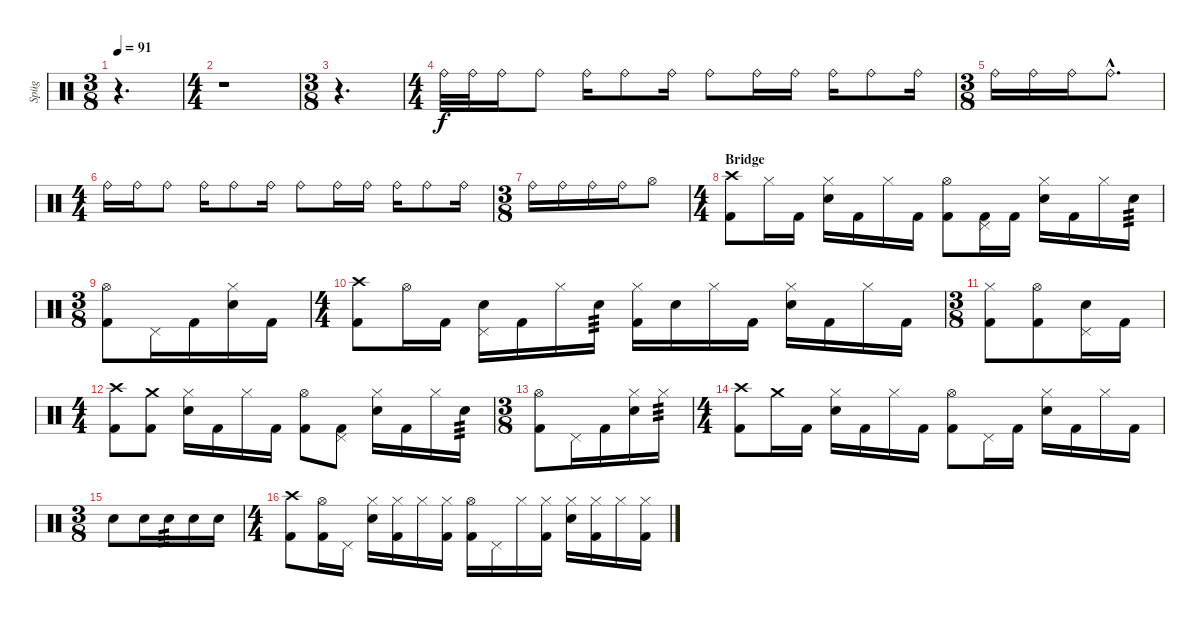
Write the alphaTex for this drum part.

\track ("Spüg" "Spüg") {instrument percussion}
\staff {score}
\articulation defaults
\ts (3 8)
\tempo 91
\clef neutral
\ks c
r.4{d dy f} |
\ts (4 4)
r.1 |
\ts (3 8)
r.4{d} |
\ts (4 4)
"Ride (bell)".32 "Ride (bell)".32 "Ride (bell)".16 "Ride (bell)".8 "Ride (bell)".16 "Ride (bell)".8 "Ride (bell)".16 "Ride (bell)".8 "Ride (bell)".16 "Ride (bell)".16 "Ride (bell)".16 "Ride (bell)".8 "Ride (bell)".16 |
\ts (3 8)
"Ride (bell)".16 "Ride (bell)".16 "Ride (bell)".16 "Ride (bell)"{hac}.8{d} |
\ts (4 4)
"Ride (bell)".16 "Ride (bell)".16 "Ride (bell)".8 "Ride (bell)".16 "Ride (bell)".8 "Ride (bell)".16 "Ride (bell)".8 "Ride (bell)".16 "Ride (bell)".16 "Ride (bell)".16 "Ride (bell)".8 "Ride (bell)".16 |
\ts (3 8)
"Ride (bell)".16 "Ride (bell)".16 "Ride (bell)".16 "Ride (bell)".16 "Hi-Hat (open)".8 |
\ts (4 4)
\section ("" "Bridge")
("Crash high (hit)" "Kick (hit) 2").8 "Hi-Hat (closed)".16 "Kick (hit) 2".16 ("Hi-Hat (closed)" "Electric Snare (hit)").16 "Kick (hit) 2".16 "Hi-Hat (closed)".16 "Kick (hit) 2".16 ("Hi-Hat (open)" "Kick (hit) 2").8 ("Pedal Hi-Hat (hit)" "Kick (hit) 2").16 "Kick (hit) 2".16 ("Hi-Hat (closed)" "Electric Snare (hit)").16 "Kick (hit) 2".16 "Hi-Hat (closed)".16 "Electric Snare (hit)".16{tp 3} |
\ts (3 8)
("Hi-Hat (open)" "Kick (hit) 2").8 "Pedal Hi-Hat (hit)".16 "Kick (hit) 2".16 ("Hi-Hat (closed)" "Electric Snare (hit)").16 "Kick (hit) 2".16 |
\ts (4 4)
("Crash high (hit)" "Kick (hit) 2").8 "Hi-Hat (open)".16 "Kick (hit) 2".16 ("Pedal Hi-Hat (hit)" "Electric Snare (hit)").16 "Kick (hit) 2".16 "Hi-Hat (closed)".16 "Electric Snare (hit)".16{tp 3} ("Hi-Hat (closed)" "Kick (hit) 2").16 "Electric Snare (hit)".16 "Hi-Hat (closed)".16 "Kick (hit) 2".16 ("Hi-Hat (closed)" "Electric Snare (hit)").16 "Kick (hit) 2".16 "Hi-Hat (closed)".16 "Kick (hit) 2".16 |
\ts (3 8)
("Hi-Hat (closed)" "Kick (hit) 2").8 ("Hi-Hat (open)" "Kick (hit) 2").8 ("Pedal Hi-Hat (hit)" "Electric Snare (hit)").16 "Kick (hit) 2".16 |
\ts (4 4)
("Crash high (hit)" "Kick (hit) 2").8 ("Crash medium (hit)" "Kick (hit) 2").8 ("Hi-Hat (closed)" "Electric Snare (hit)").16 "Kick (hit) 2".16 "Hi-Hat (closed)".16 "Kick (hit) 2".16 ("Hi-Hat (open)" "Kick (hit) 2").8 ("Pedal Hi-Hat (hit)" "Kick (hit) 2").8 ("Hi-Hat (closed)" "Electric Snare (hit)").16 "Kick (hit) 2".16 "Hi-Hat (closed)".16 "Electric Snare (hit)".16{tp 3} |
\ts (3 8)
("Hi-Hat (open)" "Kick (hit) 2").8 "Pedal Hi-Hat (hit)".16 "Kick (hit) 2".16 ("Hi-Hat (closed)" "Electric Snare (hit)").16 "Hi-Hat (closed)".16{tp 3} |
\ts (4 4)
("Crash high (hit)" "Kick (hit) 2").8 "Crash medium (hit)".16 "Kick (hit) 2".16 ("Hi-Hat (closed)" "Electric Snare (hit)").16 "Kick (hit) 2".16 "Hi-Hat (closed)".16 "Kick (hit) 2".16 ("Hi-Hat (open)" "Kick (hit) 2").8 "Pedal Hi-Hat (hit)".16 "Kick (hit) 2".16 ("Hi-Hat (closed)" "Electric Snare (hit)").16 "Kick (hit) 2".16 "Hi-Hat (closed)".16 "Kick (hit) 2".16 |
\ts (3 8)
"Electric Snare (hit)".8 "Electric Snare (hit)".16 "Electric Snare (hit)".16{tp 3} "Electric Snare (hit)".16 "Electric Snare (hit)".16 |
\ts (4 4)
("Crash high (hit)" "Kick (hit) 2").8 ("Hi-Hat (open)" "Kick (hit) 2").16 "Pedal Hi-Hat (hit)".16 ("Hi-Hat (closed)" "Electric Snare (hit)").16 ("Hi-Hat (closed)" "Kick (hit) 2").16 "Hi-Hat (closed)".16 ("Hi-Hat (closed)" "Kick (hit) 2").16 ("Hi-Hat (open)" "Kick (hit) 2").16 "Pedal Hi-Hat (hit)".16 "Hi-Hat (closed)".16 ("Hi-Hat (closed)" "Kick (hit) 2").16 ("Hi-Hat (closed)" "Electric Snare (hit)").16 ("Hi-Hat (closed)" "Kick (hit) 2").16 "Hi-Hat (closed)".16 ("Hi-Hat (closed)" "Kick (hit) 2").16
